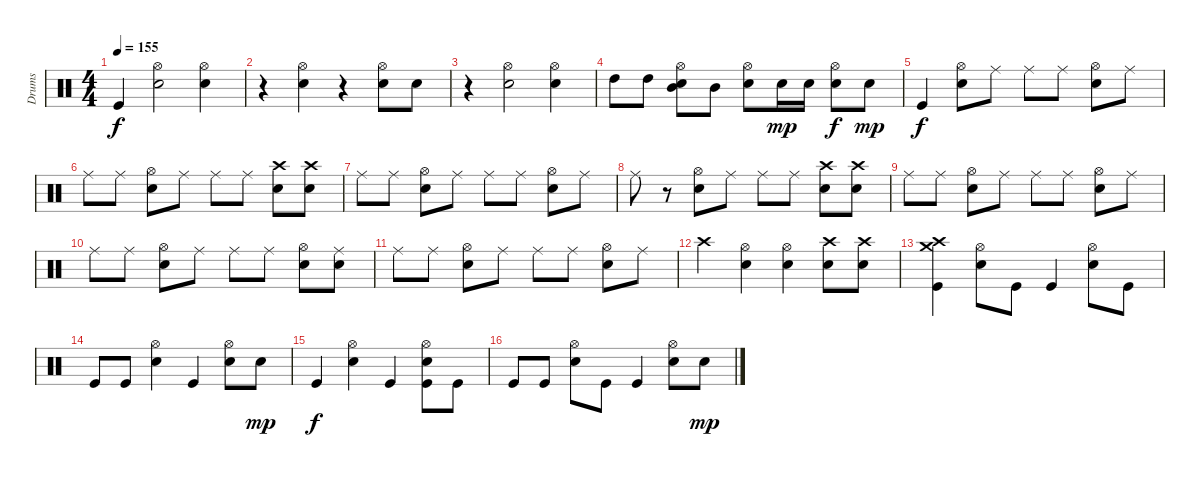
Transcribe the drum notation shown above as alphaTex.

\track ("Drums" "Drums") {instrument percussion}
\staff {score}
\articulation defaults
\ts (4 4)
\tempo 155
\clef neutral
\ks c "Kick (hit)".4{dy f}
("Snare (hit) 2" "Hi-Hat (open)").2 ("Snare (hit) 2" "Hi-Hat (open)").4 |
r.4 ("Snare (hit) 2" "Hi-Hat (open)").4 r.4 ("Snare (hit) 2" "Hi-Hat (open)").8 "Snare (hit) 2".8 |
r.4 ("Snare (hit) 2" "Hi-Hat (open)").2 ("Snare (hit) 2" "Hi-Hat (open)").4 |
"High Tom (hit)".8 "High Tom (hit)".8 ("Mid Tom (hit)" "Snare (hit) 2" "Hi-Hat (open)").8 "Mid Tom (hit)".8 ("Snare (hit) 2" "Hi-Hat (open)").8 "Snare (hit) 2".16{dy mp} "Snare (hit) 2".16 ("Snare (hit) 2" "Hi-Hat (open)").8{dy f} "Snare (hit) 2".8{dy mp} |
"Kick (hit)".4{dy f} ("Snare (hit) 2" "Hi-Hat (open)").8 "Ride (middle)".8 "Ride (middle)".8 "Ride (middle)".8 ("Snare (hit) 2" "Hi-Hat (open)").8 "Ride (middle)".8 |
"Ride (middle)".8 "Ride (middle)".8 ("Snare (hit) 2" "Hi-Hat (open)").8 "Ride (middle)".8 "Ride (middle)".8 "Ride (middle)".8 ("Snare (hit) 2" "Crash high (hit)").8 ("Snare (hit) 2" "Crash high (hit)").8 |
"Ride (middle)".8 "Ride (middle)".8 ("Snare (hit) 2" "Hi-Hat (open)").8 "Ride (middle)".8 "Ride (middle)".8 "Ride (middle)".8 ("Snare (hit) 2" "Hi-Hat (open)").8 "Ride (middle)".8 |
"Ride (middle)".8 r.8 ("Snare (hit) 2" "Hi-Hat (open)").8 "Ride (middle)".8 "Ride (middle)".8 "Ride (middle)".8 ("Snare (hit) 2" "Crash high (hit)").8 ("Snare (hit) 2" "Crash high (hit)").8 |
"Ride (middle)".8 "Ride (middle)".8 ("Snare (hit) 2" "Hi-Hat (open)").8 "Ride (middle)".8 "Ride (middle)".8 "Ride (middle)".8 ("Snare (hit) 2" "Hi-Hat (open)").8 "Ride (middle)".8 |
"Ride (middle)".8 "Ride (middle)".8 ("Snare (hit) 2" "Hi-Hat (open)").8 "Ride (middle)".8 "Ride (middle)".8 "Ride (middle)".8 ("Snare (hit) 2" "Hi-Hat (open)").8 ("Snare (hit) 2" "Ride (middle)").8 |
"Ride (middle)".8 "Ride (middle)".8 ("Snare (hit) 2" "Hi-Hat (open)").8 "Ride (middle)".8 "Ride (middle)".8 "Ride (middle)".8 ("Snare (hit) 2" "Hi-Hat (open)").8 "Ride (middle)".8 |
"Crash high (hit)".4 ("Snare (hit) 2" "Hi-Hat (open)").4 ("Snare (hit) 2" "Hi-Hat (open)").4 ("Snare (hit) 2" "Crash high (hit)").8 ("Snare (hit) 2" "Crash high (hit)").8 |
("Crash medium (hit)" "Crash high (hit)" "Kick (hit)").4 ("Snare (hit) 2" "Hi-Hat (open)").8 "Kick (hit)".8 "Kick (hit)".4 ("Snare (hit) 2" "Hi-Hat (open)").8 "Kick (hit)".8 |
"Kick (hit)".8 "Kick (hit)".8 ("Snare (hit) 2" "Hi-Hat (open)").4 "Kick (hit)".4 ("Snare (hit) 2" "Hi-Hat (open)").8 "Snare (hit) 2".8{dy mp} |
"Kick (hit)".4{dy f} ("Snare (hit) 2" "Hi-Hat (open)").4 "Kick (hit)".4 ("Snare (hit) 2" "Hi-Hat (open)" "Kick (hit)").8 "Kick (hit)".8 |
"Kick (hit)".8 "Kick (hit)".8 ("Snare (hit) 2" "Hi-Hat (open)").8 "Kick (hit)".8 "Kick (hit)".4 ("Snare (hit) 2" "Hi-Hat (open)").8 "Snare (hit) 2".8{dy mp}
